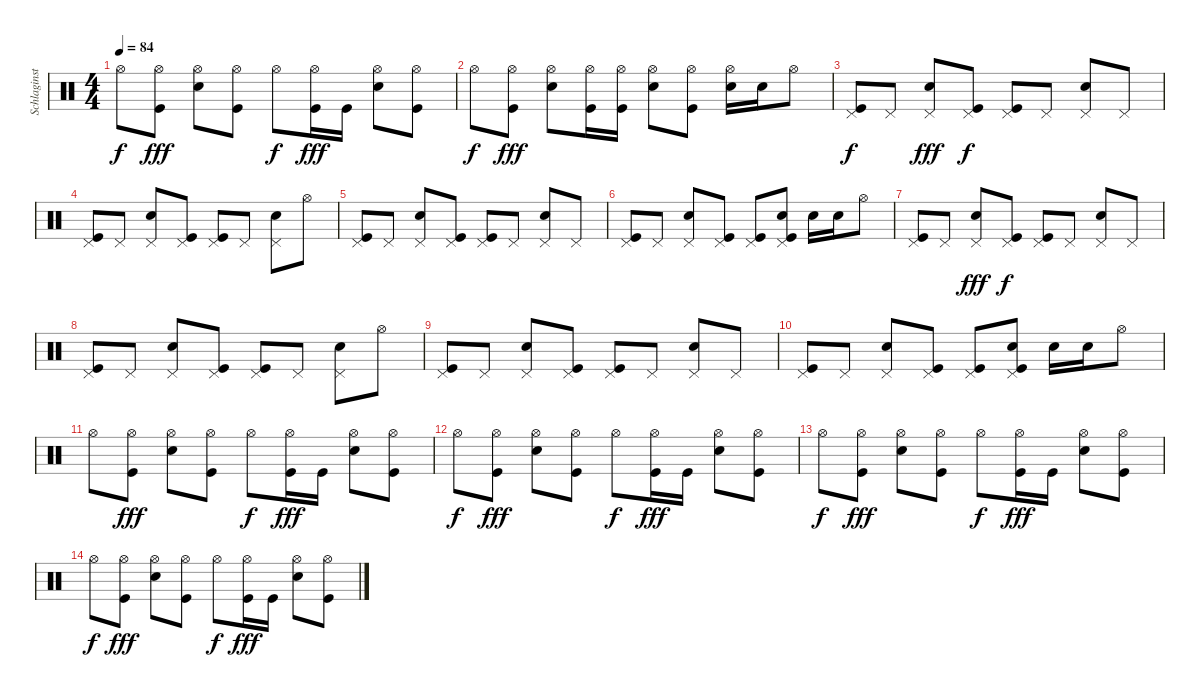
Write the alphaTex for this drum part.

\track ("Schlaginstrumente - Auswahl" "Schlaginst") {instrument percussion}
\staff {score}
\articulation defaults
\ts (4 4)
\tempo 84
\clef neutral
\ks c "Hi-Hat (open)".8{dy f}
("Hi-Hat (open)" "Kick (hit)").8{dy fff} ("Hi-Hat (open)" "Electric Snare (hit)").8 ("Hi-Hat (open)" "Kick (hit)").8 "Hi-Hat (open)".8{dy f} ("Hi-Hat (open)" "Kick (hit)").16{dy fff} "Kick (hit)".16 ("Hi-Hat (open)" "Electric Snare (hit)").8 ("Hi-Hat (open)" "Kick (hit)").8 |
"Hi-Hat (open)".8{dy f} ("Hi-Hat (open)" "Kick (hit)").8{dy fff} ("Hi-Hat (open)" "Electric Snare (hit)").8 ("Hi-Hat (open)" "Kick (hit)").16 ("Hi-Hat (open)" "Kick (hit)").16 ("Hi-Hat (open)" "Electric Snare (hit)").8 ("Hi-Hat (open)" "Kick (hit)").8 ("Hi-Hat (open)" "Electric Snare (hit)").16 "Electric Snare (hit)".16 "Hi-Hat (open)".8 |
("Pedal Hi-Hat (hit)" "Kick (hit)").8{dy f} "Pedal Hi-Hat (hit)".8 ("Pedal Hi-Hat (hit)" "Electric Snare (hit)").8{dy fff} ("Pedal Hi-Hat (hit)" "Kick (hit)").8{dy f} ("Pedal Hi-Hat (hit)" "Kick (hit)").8 "Pedal Hi-Hat (hit)".8 ("Pedal Hi-Hat (hit)" "Electric Snare (hit)").8 "Pedal Hi-Hat (hit)".8 |
("Pedal Hi-Hat (hit)" "Kick (hit)").8 "Pedal Hi-Hat (hit)".8 ("Pedal Hi-Hat (hit)" "Electric Snare (hit)").8 ("Pedal Hi-Hat (hit)" "Kick (hit)").8 ("Pedal Hi-Hat (hit)" "Kick (hit)").8 "Pedal Hi-Hat (hit)".8 ("Pedal Hi-Hat (hit)" "Electric Snare (hit)").8 "Hi-Hat (open)".8 |
("Pedal Hi-Hat (hit)" "Kick (hit)").8 "Pedal Hi-Hat (hit)".8 ("Pedal Hi-Hat (hit)" "Electric Snare (hit)").8 ("Pedal Hi-Hat (hit)" "Kick (hit)").8 ("Pedal Hi-Hat (hit)" "Kick (hit)").8 "Pedal Hi-Hat (hit)".8 ("Pedal Hi-Hat (hit)" "Electric Snare (hit)").8 "Pedal Hi-Hat (hit)".8 |
("Pedal Hi-Hat (hit)" "Kick (hit)").8 "Pedal Hi-Hat (hit)".8 ("Pedal Hi-Hat (hit)" "Electric Snare (hit)").8 ("Pedal Hi-Hat (hit)" "Kick (hit)").8 ("Pedal Hi-Hat (hit)" "Kick (hit)").8 ("Electric Snare (hit)" "Kick (hit)" "Pedal Hi-Hat (hit)").8 "Electric Snare (hit)".16 "Electric Snare (hit)".16 "Hi-Hat (open)".8 |
("Pedal Hi-Hat (hit)" "Kick (hit)").8 "Pedal Hi-Hat (hit)".8 ("Pedal Hi-Hat (hit)" "Electric Snare (hit)").8{dy fff} ("Pedal Hi-Hat (hit)" "Kick (hit)").8{dy f} ("Pedal Hi-Hat (hit)" "Kick (hit)").8 "Pedal Hi-Hat (hit)".8 ("Pedal Hi-Hat (hit)" "Electric Snare (hit)").8 "Pedal Hi-Hat (hit)".8 |
("Pedal Hi-Hat (hit)" "Kick (hit)").8 "Pedal Hi-Hat (hit)".8 ("Pedal Hi-Hat (hit)" "Electric Snare (hit)").8 ("Pedal Hi-Hat (hit)" "Kick (hit)").8 ("Pedal Hi-Hat (hit)" "Kick (hit)").8 "Pedal Hi-Hat (hit)".8 ("Pedal Hi-Hat (hit)" "Electric Snare (hit)").8 "Hi-Hat (open)".8 |
("Pedal Hi-Hat (hit)" "Kick (hit)").8 "Pedal Hi-Hat (hit)".8 ("Pedal Hi-Hat (hit)" "Electric Snare (hit)").8 ("Pedal Hi-Hat (hit)" "Kick (hit)").8 ("Pedal Hi-Hat (hit)" "Kick (hit)").8 "Pedal Hi-Hat (hit)".8 ("Pedal Hi-Hat (hit)" "Electric Snare (hit)").8 "Pedal Hi-Hat (hit)".8 |
("Pedal Hi-Hat (hit)" "Kick (hit)").8 "Pedal Hi-Hat (hit)".8 ("Pedal Hi-Hat (hit)" "Electric Snare (hit)").8 ("Pedal Hi-Hat (hit)" "Kick (hit)").8 ("Pedal Hi-Hat (hit)" "Kick (hit)").8 ("Electric Snare (hit)" "Kick (hit)" "Pedal Hi-Hat (hit)").8 "Electric Snare (hit)".16 "Electric Snare (hit)".16 "Hi-Hat (open)".8 |
"Hi-Hat (open)".8 ("Hi-Hat (open)" "Kick (hit)").8{dy fff} ("Hi-Hat (open)" "Electric Snare (hit)").8 ("Hi-Hat (open)" "Kick (hit)").8 "Hi-Hat (open)".8{dy f} ("Hi-Hat (open)" "Kick (hit)").16{dy fff} "Kick (hit)".16 ("Hi-Hat (open)" "Electric Snare (hit)").8 ("Hi-Hat (open)" "Kick (hit)").8 |
"Hi-Hat (open)".8{dy f} ("Hi-Hat (open)" "Kick (hit)").8{dy fff} ("Hi-Hat (open)" "Electric Snare (hit)").8 ("Hi-Hat (open)" "Kick (hit)").8 "Hi-Hat (open)".8{dy f} ("Hi-Hat (open)" "Kick (hit)").16{dy fff} "Kick (hit)".16 ("Hi-Hat (open)" "Electric Snare (hit)").8 ("Hi-Hat (open)" "Kick (hit)").8 |
"Hi-Hat (open)".8{dy f} ("Hi-Hat (open)" "Kick (hit)").8{dy fff} ("Hi-Hat (open)" "Electric Snare (hit)").8 ("Hi-Hat (open)" "Kick (hit)").8 "Hi-Hat (open)".8{dy f} ("Hi-Hat (open)" "Kick (hit)").16{dy fff} "Kick (hit)".16 ("Hi-Hat (open)" "Electric Snare (hit)").8 ("Hi-Hat (open)" "Kick (hit)").8 |
"Hi-Hat (open)".8{dy f} ("Hi-Hat (open)" "Kick (hit)").8{dy fff} ("Hi-Hat (open)" "Electric Snare (hit)").8 ("Hi-Hat (open)" "Kick (hit)").8 "Hi-Hat (open)".8{dy f} ("Hi-Hat (open)" "Kick (hit)").16{dy fff} "Kick (hit)".16 ("Hi-Hat (open)" "Electric Snare (hit)").8 ("Hi-Hat (open)" "Kick (hit)").8
